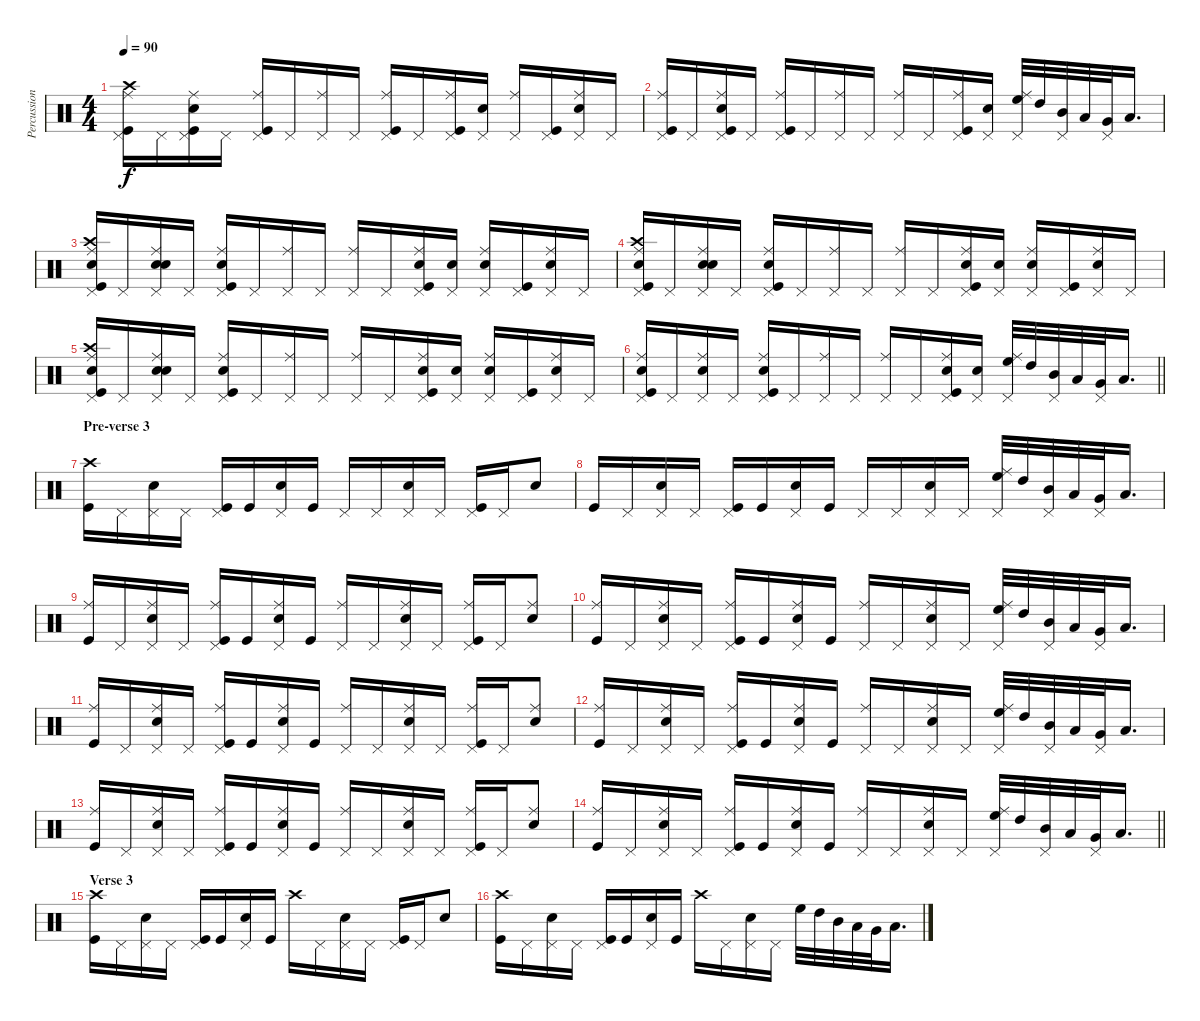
\track ("Percussion" "Percussion") {instrument percussion}
\staff {score}
\articulation defaults
\ts (4 4)
\tempo 90
\clef neutral
\ks c
("Kick (hit)" "Ride (middle)" "Pedal Hi-Hat (hit)" "Crash high (hit)").16{dy f} "Pedal Hi-Hat (hit)".16 ("Ride (middle)" "Snare (hit) 2" "Pedal Hi-Hat (hit)" "Kick (hit)").16 "Pedal Hi-Hat (hit)".16 ("Kick (hit)" "Ride (middle)" "Pedal Hi-Hat (hit)").16 "Pedal Hi-Hat (hit)".16 ("Ride (middle)" "Pedal Hi-Hat (hit)").16 "Pedal Hi-Hat (hit)".16 ("Ride (middle)" "Pedal Hi-Hat (hit)" "Kick (hit)").16 "Pedal Hi-Hat (hit)".16 ("Kick (hit)" "Ride (middle)" "Pedal Hi-Hat (hit)").16 ("Snare (hit) 2" "Pedal Hi-Hat (hit)").16 ("Pedal Hi-Hat (hit)" "Ride (middle)").16 ("Kick (hit)" "Pedal Hi-Hat (hit)").16 ("Pedal Hi-Hat (hit)" "Snare (hit) 2" "Ride (middle)").16 "Pedal Hi-Hat (hit)".16 |
("Kick (hit)" "Ride (middle)" "Pedal Hi-Hat (hit)").16 "Pedal Hi-Hat (hit)".16 ("Ride (middle)" "Snare (hit) 2" "Kick (hit)" "Pedal Hi-Hat (hit)").16 "Pedal Hi-Hat (hit)".16 ("Kick (hit)" "Ride (middle)" "Pedal Hi-Hat (hit)").16 "Pedal Hi-Hat (hit)".16 ("Ride (middle)" "Pedal Hi-Hat (hit)").16 "Pedal Hi-Hat (hit)".16 ("Ride (middle)" "Pedal Hi-Hat (hit)").16 "Pedal Hi-Hat (hit)".16 ("Kick (hit)" "Ride (middle)" "Pedal Hi-Hat (hit)").16 ("Snare (hit) 2" "Pedal Hi-Hat (hit)").16 ("High Floor Tom (hit)" "Pedal Hi-Hat (hit)" "Ride (middle)").32 "High Tom (hit)".32 ("Mid Tom (hit)" "Pedal Hi-Hat (hit)").32 "Low Tom (hit)".32 ("Very Low Tom (hit)" "Pedal Hi-Hat (hit)").32 "Low Floor Tom (hit)".16{d} |
("Kick (hit)" "Ride (middle)" "Snare (hit) 2" "Pedal Hi-Hat (hit)" "Crash high (hit)").16 "Pedal Hi-Hat (hit)".16 ("Ride (middle)" "Snare (hit) 2" "Snare (hit) 2" "Pedal Hi-Hat (hit)").16 "Pedal Hi-Hat (hit)".16 ("Kick (hit)" "Ride (middle)" "Snare (hit) 2" "Pedal Hi-Hat (hit)").16 "Pedal Hi-Hat (hit)".16 ("Ride (middle)" "Pedal Hi-Hat (hit)").16 "Pedal Hi-Hat (hit)".16 ("Ride (middle)" "Pedal Hi-Hat (hit)").16 "Pedal Hi-Hat (hit)".16 ("Snare (hit) 2" "Kick (hit)" "Ride (middle)" "Pedal Hi-Hat (hit)").16 ("Snare (hit) 2" "Pedal Hi-Hat (hit)").16 ("Pedal Hi-Hat (hit)" "Ride (middle)" "Snare (hit) 2").16 ("Kick (hit)" "Pedal Hi-Hat (hit)").16 ("Pedal Hi-Hat (hit)" "Snare (hit) 2" "Ride (middle)").16 "Pedal Hi-Hat (hit)".16 |
("Kick (hit)" "Ride (middle)" "Snare (hit) 2" "Pedal Hi-Hat (hit)" "Crash high (hit)").16 "Pedal Hi-Hat (hit)".16 ("Ride (middle)" "Snare (hit) 2" "Snare (hit) 2" "Pedal Hi-Hat (hit)").16 "Pedal Hi-Hat (hit)".16 ("Kick (hit)" "Ride (middle)" "Snare (hit) 2" "Pedal Hi-Hat (hit)").16 "Pedal Hi-Hat (hit)".16 ("Ride (middle)" "Pedal Hi-Hat (hit)").16 "Pedal Hi-Hat (hit)".16 ("Ride (middle)" "Pedal Hi-Hat (hit)").16 "Pedal Hi-Hat (hit)".16 ("Snare (hit) 2" "Kick (hit)" "Ride (middle)" "Pedal Hi-Hat (hit)").16 ("Snare (hit) 2" "Pedal Hi-Hat (hit)").16 ("Pedal Hi-Hat (hit)" "Ride (middle)" "Snare (hit) 2").16 ("Kick (hit)" "Pedal Hi-Hat (hit)").16 ("Pedal Hi-Hat (hit)" "Snare (hit) 2" "Ride (middle)").16 "Pedal Hi-Hat (hit)".16 |
("Kick (hit)" "Ride (middle)" "Snare (hit) 2" "Pedal Hi-Hat (hit)" "Crash high (hit)").16 "Pedal Hi-Hat (hit)".16 ("Ride (middle)" "Snare (hit) 2" "Snare (hit) 2" "Pedal Hi-Hat (hit)").16 "Pedal Hi-Hat (hit)".16 ("Kick (hit)" "Ride (middle)" "Snare (hit) 2" "Pedal Hi-Hat (hit)").16 "Pedal Hi-Hat (hit)".16 ("Ride (middle)" "Pedal Hi-Hat (hit)").16 "Pedal Hi-Hat (hit)".16 ("Ride (middle)" "Pedal Hi-Hat (hit)").16 "Pedal Hi-Hat (hit)".16 ("Snare (hit) 2" "Kick (hit)" "Ride (middle)" "Pedal Hi-Hat (hit)").16 ("Snare (hit) 2" "Pedal Hi-Hat (hit)").16 ("Pedal Hi-Hat (hit)" "Ride (middle)" "Snare (hit) 2").16 ("Kick (hit)" "Pedal Hi-Hat (hit)").16 ("Pedal Hi-Hat (hit)" "Snare (hit) 2" "Ride (middle)").16 "Pedal Hi-Hat (hit)".16 |
\barLineRight lightlight
("Kick (hit)" "Ride (middle)" "Snare (hit) 2" "Pedal Hi-Hat (hit)").16 "Pedal Hi-Hat (hit)".16 ("Ride (middle)" "Snare (hit) 2" "Pedal Hi-Hat (hit)").16 "Pedal Hi-Hat (hit)".16 ("Kick (hit)" "Ride (middle)" "Snare (hit) 2" "Pedal Hi-Hat (hit)").16 "Pedal Hi-Hat (hit)".16 ("Ride (middle)" "Pedal Hi-Hat (hit)").16 "Pedal Hi-Hat (hit)".16 ("Ride (middle)" "Pedal Hi-Hat (hit)").16 "Pedal Hi-Hat (hit)".16 ("Snare (hit) 2" "Kick (hit)" "Ride (middle)" "Pedal Hi-Hat (hit)").16 ("Snare (hit) 2" "Pedal Hi-Hat (hit)").16 ("High Floor Tom (hit)" "Pedal Hi-Hat (hit)" "Ride (middle)").32 "High Tom (hit)".32 ("Mid Tom (hit)" "Pedal Hi-Hat (hit)").32 "Low Tom (hit)".32 ("Very Low Tom (hit)" "Pedal Hi-Hat (hit)").32 "Low Floor Tom (hit)".16{d} |
\section ("" "Pre-verse 3")
("Crash high (hit)" "Kick (hit)").16 "Pedal Hi-Hat (hit)".16 ("Pedal Hi-Hat (hit)" "Snare (hit) 2").16 "Pedal Hi-Hat (hit)".16 ("Pedal Hi-Hat (hit)" "Kick (hit)").16 "Kick (hit)".16 ("Pedal Hi-Hat (hit)" "Snare (hit) 2").16 "Kick (hit)".16 "Pedal Hi-Hat (hit)".16 "Pedal Hi-Hat (hit)".16 ("Pedal Hi-Hat (hit)" "Snare (hit) 2").16 "Pedal Hi-Hat (hit)".16 ("Pedal Hi-Hat (hit)" "Kick (hit)").16 "Pedal Hi-Hat (hit)".16 "Snare (hit) 2".8 |
"Kick (hit)".16 "Pedal Hi-Hat (hit)".16 ("Pedal Hi-Hat (hit)" "Snare (hit) 2").16 "Pedal Hi-Hat (hit)".16 ("Pedal Hi-Hat (hit)" "Kick (hit)").16 "Kick (hit)".16 ("Pedal Hi-Hat (hit)" "Snare (hit) 2").16 "Kick (hit)".16 "Pedal Hi-Hat (hit)".16 "Pedal Hi-Hat (hit)".16 ("Pedal Hi-Hat (hit)" "Snare (hit) 2").16 "Pedal Hi-Hat (hit)".16 ("High Floor Tom (hit)" "Pedal Hi-Hat (hit)" "Ride (middle)").32 "High Tom (hit)".32 ("Mid Tom (hit)" "Pedal Hi-Hat (hit)").32 "Low Tom (hit)".32 ("Very Low Tom (hit)" "Pedal Hi-Hat (hit)").32 "Low Floor Tom (hit)".16{d} |
("Ride (middle)" "Kick (hit)").16 "Pedal Hi-Hat (hit)".16 ("Pedal Hi-Hat (hit)" "Ride (middle)" "Snare (hit) 2").16 "Pedal Hi-Hat (hit)".16 ("Pedal Hi-Hat (hit)" "Ride (middle)" "Kick (hit)").16 "Kick (hit)".16 ("Pedal Hi-Hat (hit)" "Ride (middle)" "Snare (hit) 2").16 "Kick (hit)".16 ("Pedal Hi-Hat (hit)" "Ride (middle)").16 "Pedal Hi-Hat (hit)".16 ("Pedal Hi-Hat (hit)" "Ride (middle)" "Snare (hit) 2").16 "Pedal Hi-Hat (hit)".16 ("Pedal Hi-Hat (hit)" "Ride (middle)" "Kick (hit)").16 "Pedal Hi-Hat (hit)".16 ("Ride (middle)" "Snare (hit) 2").8 |
("Ride (middle)" "Kick (hit)").16 "Pedal Hi-Hat (hit)".16 ("Pedal Hi-Hat (hit)" "Ride (middle)" "Snare (hit) 2").16 "Pedal Hi-Hat (hit)".16 ("Pedal Hi-Hat (hit)" "Ride (middle)" "Kick (hit)").16 "Kick (hit)".16 ("Pedal Hi-Hat (hit)" "Ride (middle)" "Snare (hit) 2").16 "Kick (hit)".16 ("Pedal Hi-Hat (hit)" "Ride (middle)").16 "Pedal Hi-Hat (hit)".16 ("Pedal Hi-Hat (hit)" "Ride (middle)" "Snare (hit) 2").16 "Pedal Hi-Hat (hit)".16 ("High Floor Tom (hit)" "Pedal Hi-Hat (hit)" "Ride (middle)").32 "High Tom (hit)".32 ("Mid Tom (hit)" "Pedal Hi-Hat (hit)").32 "Low Tom (hit)".32 ("Very Low Tom (hit)" "Pedal Hi-Hat (hit)").32 "Low Floor Tom (hit)".16{d} |
("Ride (middle)" "Kick (hit)").16 "Pedal Hi-Hat (hit)".16 ("Pedal Hi-Hat (hit)" "Ride (middle)" "Snare (hit) 2").16 "Pedal Hi-Hat (hit)".16 ("Pedal Hi-Hat (hit)" "Ride (middle)" "Kick (hit)").16 "Kick (hit)".16 ("Pedal Hi-Hat (hit)" "Ride (middle)" "Snare (hit) 2").16 "Kick (hit)".16 ("Pedal Hi-Hat (hit)" "Ride (middle)").16 "Pedal Hi-Hat (hit)".16 ("Pedal Hi-Hat (hit)" "Ride (middle)" "Snare (hit) 2").16 "Pedal Hi-Hat (hit)".16 ("Pedal Hi-Hat (hit)" "Ride (middle)" "Kick (hit)").16 "Pedal Hi-Hat (hit)".16 ("Ride (middle)" "Snare (hit) 2").8 |
("Ride (middle)" "Kick (hit)").16 "Pedal Hi-Hat (hit)".16 ("Pedal Hi-Hat (hit)" "Ride (middle)" "Snare (hit) 2").16 "Pedal Hi-Hat (hit)".16 ("Pedal Hi-Hat (hit)" "Ride (middle)" "Kick (hit)").16 "Kick (hit)".16 ("Pedal Hi-Hat (hit)" "Ride (middle)" "Snare (hit) 2").16 "Kick (hit)".16 ("Pedal Hi-Hat (hit)" "Ride (middle)").16 "Pedal Hi-Hat (hit)".16 ("Pedal Hi-Hat (hit)" "Ride (middle)" "Snare (hit) 2").16 "Pedal Hi-Hat (hit)".16 ("High Floor Tom (hit)" "Pedal Hi-Hat (hit)" "Ride (middle)").32 "High Tom (hit)".32 ("Mid Tom (hit)" "Pedal Hi-Hat (hit)").32 "Low Tom (hit)".32 ("Very Low Tom (hit)" "Pedal Hi-Hat (hit)").32 "Low Floor Tom (hit)".16{d} |
("Ride (middle)" "Kick (hit)").16 "Pedal Hi-Hat (hit)".16 ("Pedal Hi-Hat (hit)" "Ride (middle)" "Snare (hit) 2").16 "Pedal Hi-Hat (hit)".16 ("Pedal Hi-Hat (hit)" "Ride (middle)" "Kick (hit)").16 "Kick (hit)".16 ("Pedal Hi-Hat (hit)" "Ride (middle)" "Snare (hit) 2").16 "Kick (hit)".16 ("Pedal Hi-Hat (hit)" "Ride (middle)").16 "Pedal Hi-Hat (hit)".16 ("Pedal Hi-Hat (hit)" "Ride (middle)" "Snare (hit) 2").16 "Pedal Hi-Hat (hit)".16 ("Pedal Hi-Hat (hit)" "Ride (middle)" "Kick (hit)").16 "Pedal Hi-Hat (hit)".16 ("Ride (middle)" "Snare (hit) 2").8 |
\barLineRight lightlight
("Ride (middle)" "Kick (hit)").16 "Pedal Hi-Hat (hit)".16 ("Pedal Hi-Hat (hit)" "Ride (middle)" "Snare (hit) 2").16 "Pedal Hi-Hat (hit)".16 ("Pedal Hi-Hat (hit)" "Ride (middle)" "Kick (hit)").16 "Kick (hit)".16 ("Pedal Hi-Hat (hit)" "Ride (middle)" "Snare (hit) 2").16 "Kick (hit)".16 ("Pedal Hi-Hat (hit)" "Ride (middle)").16 "Pedal Hi-Hat (hit)".16 ("Pedal Hi-Hat (hit)" "Ride (middle)" "Snare (hit) 2").16 "Pedal Hi-Hat (hit)".16 ("High Floor Tom (hit)" "Pedal Hi-Hat (hit)" "Ride (middle)").32 "High Tom (hit)".32 ("Mid Tom (hit)" "Pedal Hi-Hat (hit)").32 "Low Tom (hit)".32 ("Very Low Tom (hit)" "Pedal Hi-Hat (hit)").32 "Low Floor Tom (hit)".16{d} |
\section ("" "Verse 3")
("Crash high (hit)" "Kick (hit)").16 "Pedal Hi-Hat (hit)".16 ("Pedal Hi-Hat (hit)" "Snare (hit) 2").16 "Pedal Hi-Hat (hit)".16 ("Pedal Hi-Hat (hit)" "Kick (hit)").16 "Kick (hit)".16 ("Pedal Hi-Hat (hit)" "Snare (hit) 2").16 "Kick (hit)".16 "Crash high (hit)".16 "Pedal Hi-Hat (hit)".16 ("Pedal Hi-Hat (hit)" "Snare (hit) 2").16 "Pedal Hi-Hat (hit)".16 ("Pedal Hi-Hat (hit)" "Kick (hit)").16 "Pedal Hi-Hat (hit)".16 "Snare (hit) 2".8 |
("Crash high (hit)" "Kick (hit)").16 "Pedal Hi-Hat (hit)".16 ("Pedal Hi-Hat (hit)" "Snare (hit) 2").16 "Pedal Hi-Hat (hit)".16 ("Pedal Hi-Hat (hit)" "Kick (hit)").16 "Kick (hit)".16 ("Pedal Hi-Hat (hit)" "Snare (hit) 2").16 "Kick (hit)".16 "Crash high (hit)".16 "Pedal Hi-Hat (hit)".16 ("Pedal Hi-Hat (hit)" "Snare (hit) 2").16 "Pedal Hi-Hat (hit)".16 "High Floor Tom (hit)".32 "High Tom (hit)".32 "Mid Tom (hit)".32 "Low Tom (hit)".32 "Very Low Tom (hit)".32 "Low Floor Tom (hit)".16{d}
